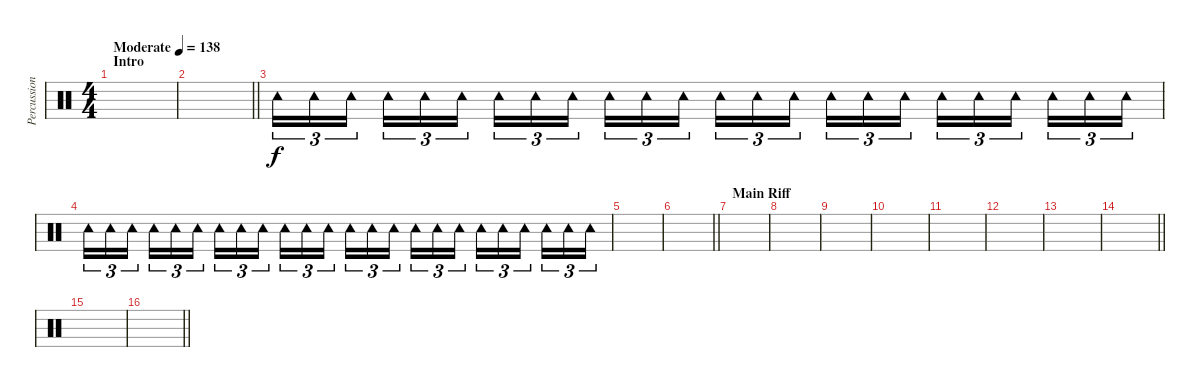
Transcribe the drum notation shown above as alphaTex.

\track ("Percussions" "Percussion") {instrument percussion}
\staff
\articulation defaults
\ts (4 4)
\section ("" "Intro")
\tempo (138 "Moderate")
\clef neutral
\ks c
|
\barLineRight lightlight
|
"Tambourine (hit)".16{tu (3 2) volume 0} "Tambourine (hit)".16{tu (3 2)} "Tambourine (hit)".16{tu (3 2) beam splitsecondary} "Tambourine (hit)".16{tu (3 2)} "Tambourine (hit)".16{tu (3 2)} "Tambourine (hit)".16{tu (3 2)} "Tambourine (hit)".16{tu (3 2)} "Tambourine (hit)".16{tu (3 2)} "Tambourine (hit)".16{tu (3 2) beam splitsecondary} "Tambourine (hit)".16{tu (3 2)} "Tambourine (hit)".16{tu (3 2)} "Tambourine (hit)".16{tu (3 2)} "Tambourine (hit)".16{tu (3 2)} "Tambourine (hit)".16{tu (3 2)} "Tambourine (hit)".16{tu (3 2) beam splitsecondary} "Tambourine (hit)".16{tu (3 2)} "Tambourine (hit)".16{tu (3 2)} "Tambourine (hit)".16{tu (3 2)} "Tambourine (hit)".16{tu (3 2)} "Tambourine (hit)".16{tu (3 2)} "Tambourine (hit)".16{tu (3 2) beam splitsecondary} "Tambourine (hit)".16{tu (3 2)} "Tambourine (hit)".16{tu (3 2)} "Tambourine (hit)".16{tu (3 2)} |
"Tambourine (hit)".16{tu (3 2)} "Tambourine (hit)".16{tu (3 2)} "Tambourine (hit)".16{tu (3 2) beam splitsecondary} "Tambourine (hit)".16{tu (3 2)} "Tambourine (hit)".16{tu (3 2)} "Tambourine (hit)".16{tu (3 2)} "Tambourine (hit)".16{tu (3 2)} "Tambourine (hit)".16{tu (3 2)} "Tambourine (hit)".16{tu (3 2) beam splitsecondary} "Tambourine (hit)".16{tu (3 2)} "Tambourine (hit)".16{tu (3 2)} "Tambourine (hit)".16{tu (3 2)} "Tambourine (hit)".16{tu (3 2)} "Tambourine (hit)".16{tu (3 2)} "Tambourine (hit)".16{tu (3 2) beam splitsecondary} "Tambourine (hit)".16{tu (3 2)} "Tambourine (hit)".16{tu (3 2)} "Tambourine (hit)".16{tu (3 2)} "Tambourine (hit)".16{tu (3 2)} "Tambourine (hit)".16{tu (3 2)} "Tambourine (hit)".16{tu (3 2) beam splitsecondary} "Tambourine (hit)".16{tu (3 2)} "Tambourine (hit)".16{tu (3 2)} "Tambourine (hit)".16{tu (3 2)} |
|
\barLineRight lightlight
|
\section ("" "Main Riff")
|
|
|
|
|
|
|
\barLineRight lightlight
|
|
\barLineRight lightlight
